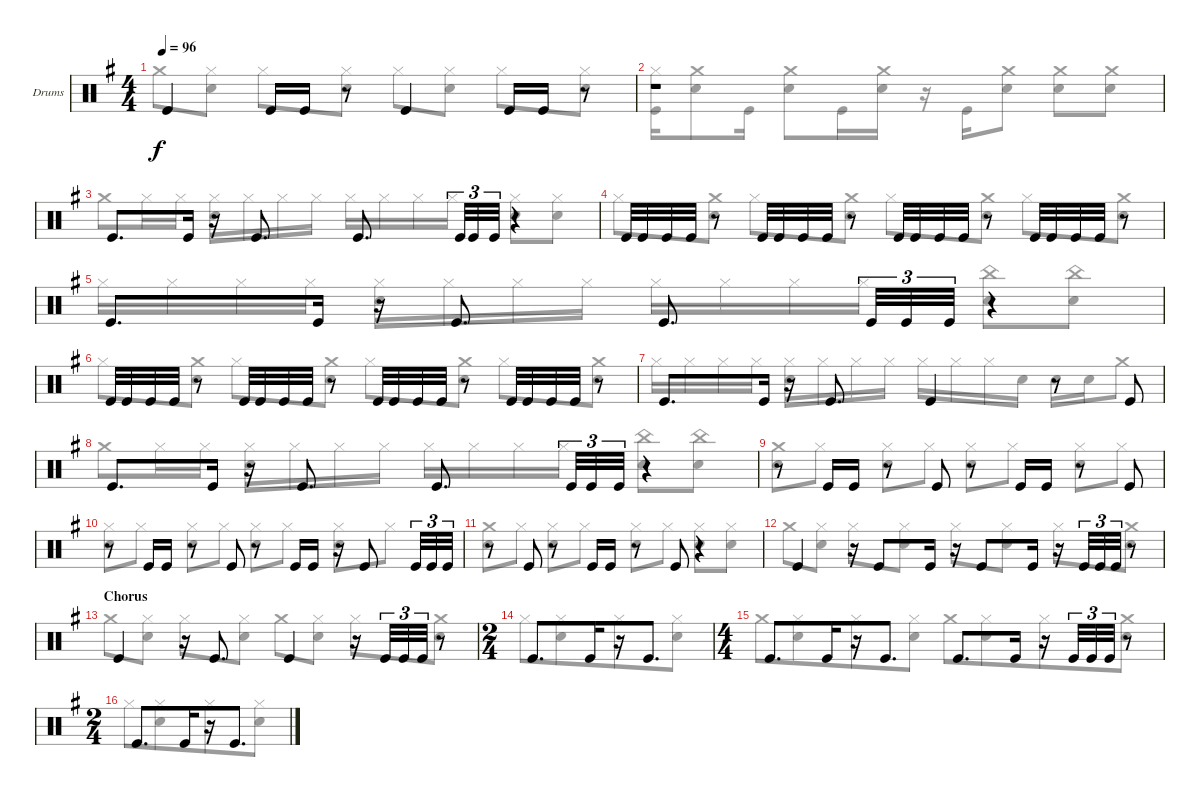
\bracketExtendMode groupsimilarinstruments
\firstSystemTrackNameOrientation horizontal
\otherSystemsTrackNameOrientation horizontal
\track ("Drumkit" "Drums") {instrument percussion}
\staff {score}
\articulation defaults
\voice
\ts (4 4)
\tempo 96
\clef neutral
\scale
1.04288
\ks g "Kick (hit)".4{dy f} "Kick (hit)".16 "Kick (hit)".16
r.8 "Kick (hit)".4 "Kick (hit)".16 "Kick (hit)".16 r.8 |
\scale
0.957125 r.1 |
\scale
1.04288 "Kick (hit)".8{d} "Kick (hit)".16 r.16 "Kick (hit)".8{d} "Kick (hit)".8{d} "Kick (hit)".32{tu (3 2)} "Kick (hit)".32{tu (3 2)} "Kick (hit)".32{tu (3 2)} r.4 |
\scale
0.957125 "Kick (hit)".32 "Kick (hit)".32 "Kick (hit)".32 "Kick (hit)".32 r.8 "Kick (hit)".32 "Kick (hit)".32 "Kick (hit)".32 "Kick (hit)".32 r.8 "Kick (hit)".32 "Kick (hit)".32 "Kick (hit)".32 "Kick (hit)".32 r.8 "Kick (hit)".32 "Kick (hit)".32 "Kick (hit)".32 "Kick (hit)".32 r.8 |
\scale
1.04288 "Kick (hit)".8{d} "Kick (hit)".16 r.16 "Kick (hit)".8{d} "Kick (hit)".8{d} "Kick (hit)".32{tu (3 2)} "Kick (hit)".32{tu (3 2)} "Kick (hit)".32{tu (3 2)} r.4 |
\scale
0.957125 "Kick (hit)".32 "Kick (hit)".32 "Kick (hit)".32 "Kick (hit)".32 r.8 "Kick (hit)".32 "Kick (hit)".32 "Kick (hit)".32 "Kick (hit)".32 r.8 "Kick (hit)".32 "Kick (hit)".32 "Kick (hit)".32 "Kick (hit)".32 r.8 "Kick (hit)".32 "Kick (hit)".32 "Kick (hit)".32 "Kick (hit)".32 r.8 |
\scale
1.04288 "Kick (hit)".8{d} "Kick (hit)".16 r.16 "Kick (hit)".8{d} "Kick (hit)".4 r.8 "Kick (hit)".8 |
\scale
0.957125 "Kick (hit)".8{d} "Kick (hit)".16 r.16 "Kick (hit)".8{d} "Kick (hit)".8{d} "Kick (hit)".32{tu (3 2)} "Kick (hit)".32{tu (3 2)} "Kick (hit)".32{tu (3 2)} r.4 |
\scale
1.04288 r.8 "Kick (hit)".16 "Kick (hit)".16 r.8 "Kick (hit)".8 r.8 "Kick (hit)".16 "Kick (hit)".16 r.8 "Kick (hit)".8 |
\scale
0.957125 r.8 "Kick (hit)".16 "Kick (hit)".16 r.8 "Kick (hit)".8 r.8 "Kick (hit)".16 "Kick (hit)".16 r.16 "Kick (hit)".8 "Kick (hit)".32{tu (3 2)} "Kick (hit)".32{tu (3 2)} "Kick (hit)".32{tu (3 2)} |
\scale
1.04288 r.8 "Kick (hit)".8 r.8 "Kick (hit)".16 "Kick (hit)".16 r.8 "Kick (hit)".8 r.4 |
\scale
0.957125 "Kick (hit)".4 r.16 "Kick (hit)".8 "Kick (hit)".16 r.16 "Kick (hit)".8 "Kick (hit)".16 r.16 "Kick (hit)".32{tu (3 2)} "Kick (hit)".32{tu (3 2)} "Kick (hit)".32{tu (3 2)} r.8 |
\section ("" "Chorus")
\scale
1.04288 "Kick (hit)".4 r.16 "Kick (hit)".8{d} "Kick (hit)".4 r.16 "Kick (hit)".32{tu (3 2)} "Kick (hit)".32{tu (3 2)} "Kick (hit)".32{tu (3 2)} r.8 |
\ts (2 4)
\beaming (8 4 4)
\scale
0.957125 "Kick (hit)".8{d} "Kick (hit)".16 r.16 "Kick (hit)".8{d} |
\ts (4 4)
\beaming (8 4 4)
\scale
1.07314 "Kick (hit)".8{d} "Kick (hit)".16 r.16 "Kick (hit)".8{d} "Kick (hit)".8{d} "Kick (hit)".16 r.16 "Kick (hit)".32{tu (3 2)} "Kick (hit)".32{tu (3 2)} "Kick (hit)".32{tu (3 2)} r.8 |
\ts (2 4)
\beaming (8 4 4)
\scale
0.92686 "Kick (hit)".8{d} "Kick (hit)".16 r.16 "Kick (hit)".8{d}
\voice
\clef neutral
\ottava regular
\simile none
\scale
1.04288
\ks g "Crash medium (hit)".8{dy f}
("Hi-Hat (closed)" "Snare (hit) 2").8 "Hi-Hat (closed)".8 ("Hi-Hat (closed)" "Snare (hit) 2").8 "Hi-Hat (closed)".8 ("Hi-Hat (closed)" "Snare (hit) 2").8 "Hi-Hat (closed)".8 ("Hi-Hat (closed)" "Snare (hit) 2").8 |
\scale
0.957125 ("Hi-Hat (closed)" "Kick (hit)").16 ("Crash medium (hit)" "Snare (hit) 2").8 "Kick (hit)".16 ("Crash medium (hit)" "Snare (hit) 2").8 "Kick (hit)".16 ("Crash medium (hit)" "Snare (hit) 2").16 r.16 "Kick (hit)".16 ("Crash medium (hit)" "Snare (hit) 2").8 ("Crash medium (hit)" "Snare (hit) 2").8 ("Crash medium (hit)" "Snare (hit) 2").8 |
\scale
1.04288 "Crash medium (hit)".8 "Hi-Hat (closed)".16 "Hi-Hat (closed)".16 ("Hi-Hat (closed)" "Snare (hit) 2").16 "Hi-Hat (closed)".16 "Hi-Hat (closed)".16 "Hi-Hat (closed)".16 "Hi-Hat (closed)".16 "Hi-Hat (closed)".16 "Hi-Hat (closed)".16 "Hi-Hat (closed)".16 ("Hi-Hat (closed)" "Snare (hit) 2").8 ("Hi-Hat (closed)" "Snare (hit) 2").8 |
\scale
0.957125 "Hi-Hat (closed)".8 ("Crash medium (hit)" "Snare (hit) 2").8 "Hi-Hat (closed)".8 ("Crash medium (hit)" "Snare (hit) 2").8 "Hi-Hat (closed)".8 ("Crash medium (hit)" "Snare (hit) 2").8 "Hi-Hat (closed)".8 ("Crash medium (hit)" "Snare (hit) 2").8 |
\scale
1.04288 "Hi-Hat (closed)".16 "Hi-Hat (closed)".16 "Hi-Hat (closed)".16 "Hi-Hat (closed)".16 ("Hi-Hat (closed)" "Snare (hit) 2").16 "Hi-Hat (closed)".16 "Hi-Hat (closed)".16 "Hi-Hat (closed)".16 "Hi-Hat (closed)".16 "Hi-Hat (closed)".16 "Hi-Hat (closed)".16 "Hi-Hat (closed)".16 ("China (hit)" "Snare (hit) 2").8 ("China (hit)" "Snare (hit) 2").8 |
\scale
0.957125 "Hi-Hat (closed)".8 ("Crash medium (hit)" "Snare (hit) 2").8 "Hi-Hat (closed)".8 ("Crash medium (hit)" "Snare (hit) 2").8 "Hi-Hat (closed)".8 ("Crash medium (hit)" "Snare (hit) 2").8 "Hi-Hat (closed)".8 ("Crash medium (hit)" "Snare (hit) 2").8 |
\scale
1.04288 "Hi-Hat (closed)".16 "Hi-Hat (closed)".16 "Hi-Hat (closed)".16 "Hi-Hat (closed)".16 ("Hi-Hat (closed)" "Snare (hit) 2").16 "Hi-Hat (closed)".16 "Hi-Hat (closed)".16 "Hi-Hat (closed)".16 "Hi-Hat (closed)".16 "Hi-Hat (closed)".16 "Hi-Hat (closed)".16 "Snare (hit) 2".16 "Snare (hit) 2".16 "Snare (hit) 2".16 "Crash medium (hit)".8 |
\scale
0.957125 "Crash medium (hit)".8 "Hi-Hat (closed)".16 "Hi-Hat (closed)".16 ("Hi-Hat (closed)" "Snare (hit) 2").16 "Hi-Hat (closed)".16 "Hi-Hat (closed)".16 "Hi-Hat (closed)".16 "Hi-Hat (closed)".16 "Hi-Hat (closed)".16 "Hi-Hat (closed)".16 "Hi-Hat (closed)".16 ("China (hit)" "Snare (hit) 2").8 ("China (hit)" "Snare (hit) 2").8 |
\scale
1.04288 ("Crash medium (hit)" "Snare (hit) 2").8 "Hi-Hat (closed)".8 ("Hi-Hat (closed)" "Snare (hit) 2").8 "Hi-Hat (closed)".8 ("Hi-Hat (closed)" "Snare (hit) 2").8 "Hi-Hat (closed)".8 ("Hi-Hat (closed)" "Snare (hit) 2").8 "Hi-Hat (closed)".8 |
\scale
0.957125 ("Hi-Hat (closed)" "Snare (hit) 2").8 "Hi-Hat (closed)".8 ("Hi-Hat (closed)" "Snare (hit) 2").8 "Hi-Hat (closed)".8 ("Hi-Hat (closed)" "Snare (hit) 2").8 "Hi-Hat (closed)".8 ("Hi-Hat (closed)" "Snare (hit) 2").8 "Hi-Hat (closed)".8 |
\scale
1.04288 ("Crash medium (hit)" "Snare (hit) 2").8 "Hi-Hat (closed)".8 ("Hi-Hat (closed)" "Snare (hit) 2").8 "Hi-Hat (closed)".8 ("Hi-Hat (closed)" "Snare (hit) 2").8 "Hi-Hat (closed)".8 ("Hi-Hat (closed)" "Snare (hit) 2").8 ("Hi-Hat (closed)" "Snare (hit) 2").8 |
\scale
0.957125 "Crash medium (hit)".8 ("Hi-Hat (closed)" "Snare (hit) 2").8 "Hi-Hat (closed)".8 ("Hi-Hat (closed)" "Snare (hit) 2").8 "Hi-Hat (closed)".8 ("Hi-Hat (closed)" "Snare (hit) 2").8 "Hi-Hat (closed)".8 ("Crash medium (hit)" "Snare (hit) 2").8 |
\scale
1.04288 "Crash medium (hit)".8 ("Hi-Hat (closed)" "Snare (hit) 2").8 "Hi-Hat (closed)".8 ("Hi-Hat (closed)" "Snare (hit) 2").8 "Crash medium (hit)".8 ("Hi-Hat (closed)" "Snare (hit) 2").8 "Hi-Hat (closed)".8 ("Crash medium (hit)" "Snare (hit) 2").8 |
\scale
0.957125 "Hi-Hat (closed)".8 ("Hi-Hat (closed)" "Snare (hit) 2").8 "Hi-Hat (closed)".8 ("Hi-Hat (closed)" "Snare (hit) 2").8 |
\scale
1.07314 "Crash medium (hit)".8 ("Hi-Hat (closed)" "Snare (hit) 2").8 "Hi-Hat (closed)".8 ("Hi-Hat (closed)" "Snare (hit) 2").8 "Crash medium (hit)".8 ("Hi-Hat (closed)" "Snare (hit) 2").8 "Hi-Hat (closed)".8 ("Crash medium (hit)" "Snare (hit) 2").8 |
\scale
0.92686 "Hi-Hat (closed)".8 ("Hi-Hat (closed)" "Snare (hit) 2").8 "Hi-Hat (closed)".8 ("Hi-Hat (closed)" "Snare (hit) 2").8
